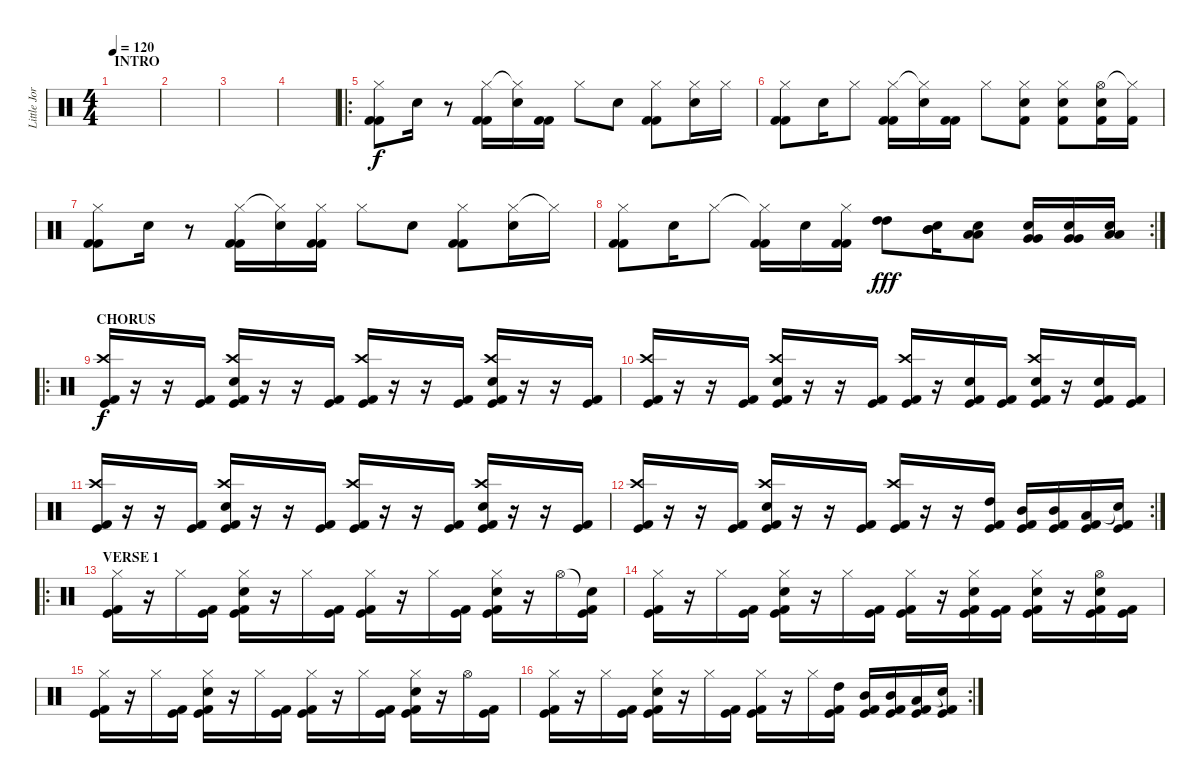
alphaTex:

\track ("Little Jordison" "Little Jor") {instrument percussion}
\staff {score}
\articulation defaults
\ts (4 4)
\section ("" "INTRO")
\tempo 120
\clef neutral
\ks c
|
|
|
|
\ro
("Hi-Hat (closed)" "Kick (hit) 2" "Kick (hit) 2").8 "Electric Snare (hit)".16 r.8 ("Hi-Hat (closed)" "Kick (hit) 2" "Kick (hit) 2").16 ("Hi-Hat (closed)"{t} "Electric Snare (hit)").16 ("Kick (hit) 2" "Kick (hit) 2").16 "Hi-Hat (closed)".8 "Electric Snare (hit)".8 ("Hi-Hat (closed)" "Kick (hit) 2" "Kick (hit) 2").8 ("Hi-Hat (closed)" "Electric Snare (hit)").16 "Hi-Hat (closed)".16 |
("Hi-Hat (closed)" "Kick (hit) 2" "Kick (hit) 2").8 "Electric Snare (hit)".16 "Hi-Hat (closed)".8 ("Hi-Hat (closed)" "Kick (hit) 2" "Kick (hit) 2").16 ("Hi-Hat (closed)"{t} "Electric Snare (hit)").16 ("Kick (hit) 2" "Kick (hit) 2").16 "Hi-Hat (closed)".8 ("Hi-Hat (closed)" "Kick (hit) 2" "Electric Snare (hit)").8 ("Hi-Hat (closed)" "Kick (hit) 2" "Electric Snare (hit)").8 ("Hi-Hat (open)" "Kick (hit) 2" "Electric Snare (hit)").16 ("Hi-Hat (closed)"{t} "Kick (hit) 2").16 |
("Hi-Hat (closed)" "Kick (hit) 2" "Kick (hit) 2").8 "Electric Snare (hit)".16 r.8 ("Hi-Hat (closed)" "Kick (hit) 2" "Kick (hit) 2").16 ("Hi-Hat (closed)"{t} "Electric Snare (hit)").16 ("Hi-Hat (closed)" "Kick (hit) 2" "Kick (hit) 2").16 "Hi-Hat (closed)".8 "Electric Snare (hit)".8 ("Hi-Hat (closed)" "Kick (hit) 2" "Kick (hit) 2").8 ("Hi-Hat (closed)" "Electric Snare (hit)").16 "Hi-Hat (closed)"{t}.16 |
\rc 2
("Hi-Hat (closed)" "Kick (hit) 2" "Kick (hit) 2").8 "Electric Snare (hit)".16 "Hi-Hat (closed)".8 ("Hi-Hat (closed)"{t} "Kick (hit) 2" "Kick (hit) 2").16 "Electric Snare (hit)".16 ("Hi-Hat (closed)" "Kick (hit) 2" "Kick (hit) 2").16 ("High Tom (hit)" "High Tom (hit)").8{dy fff} ("Mid Tom (hit)" "Mid Tom (hit)" "Electric Snare (hit)").16 ("Low Tom (hit)" "Low Tom (hit)" "Electric Snare (hit)").8 ("Very Low Tom (hit)" "Very Low Tom (hit)" "Electric Snare (hit)").16 ("Very Low Tom (hit)" "Very Low Tom (hit)" "Electric Snare (hit)").16 ("Low Floor Tom (hit)" "Low Floor Tom (hit)" "Electric Snare (hit)").16 |
\ro
\section ("" "CHORUS")
("Crash high (hit)" "Kick (hit)" "Kick (hit) 2").16{dy f} r.16 r.16 ("Kick (hit)" "Kick (hit) 2").16 ("Crash high (hit)" "Electric Snare (hit)" "Kick (hit)" "Kick (hit) 2").16 r.16 r.16 ("Kick (hit)" "Kick (hit) 2").16 ("Crash high (hit)" "Kick (hit)" "Kick (hit) 2").16 r.16 r.16 ("Kick (hit)" "Kick (hit) 2").16 ("Crash high (hit)" "Electric Snare (hit)" "Kick (hit)" "Kick (hit) 2").16 r.16 r.16 ("Kick (hit)" "Kick (hit) 2").16 |
("Crash high (hit)" "Kick (hit)" "Kick (hit) 2").16 r.16 r.16 ("Kick (hit)" "Kick (hit) 2").16 ("Crash high (hit)" "Electric Snare (hit)" "Kick (hit)" "Kick (hit) 2").16 r.16 r.16 ("Kick (hit)" "Kick (hit) 2").16 ("Crash high (hit)" "Kick (hit)" "Kick (hit) 2").16 r.16 ("Electric Snare (hit)" "Kick (hit)" "Kick (hit) 2").16 ("Kick (hit)" "Kick (hit) 2").16 ("Crash high (hit)" "Electric Snare (hit)" "Kick (hit)" "Kick (hit) 2").16 r.16 ("Electric Snare (hit)" "Kick (hit)" "Kick (hit) 2").16 ("Kick (hit)" "Kick (hit) 2").16 |
("Crash high (hit)" "Kick (hit)" "Kick (hit) 2").16 r.16 r.16 ("Kick (hit)" "Kick (hit) 2").16 ("Crash high (hit)" "Electric Snare (hit)" "Kick (hit)" "Kick (hit) 2").16 r.16 r.16 ("Kick (hit)" "Kick (hit) 2").16 ("Crash high (hit)" "Kick (hit)" "Kick (hit) 2").16 r.16 r.16 ("Kick (hit)" "Kick (hit) 2").16 ("Crash high (hit)" "Electric Snare (hit)" "Kick (hit)" "Kick (hit) 2").16 r.16 r.16 ("Kick (hit)" "Kick (hit) 2").16 |
\rc 2
("Crash high (hit)" "Kick (hit)" "Kick (hit) 2").16 r.16 r.16 ("Kick (hit)" "Kick (hit) 2").16 ("Crash high (hit)" "Electric Snare (hit)" "Kick (hit)" "Kick (hit) 2").16 r.16 r.16 ("Kick (hit)" "Kick (hit) 2").16 ("Crash high (hit)" "Kick (hit)" "Kick (hit) 2").16 r.16 r.16 ("High Tom (hit)" "Kick (hit)" "Kick (hit) 2").16 ("Mid Tom (hit)" "Kick (hit)" "Kick (hit) 2").16 ("Mid Tom (hit)" "Kick (hit)" "Kick (hit) 2").16 ("Low Tom (hit)" "Kick (hit)" "Kick (hit) 2").16 ("Snare (hit)"{t} "Kick (hit)" "Kick (hit) 2").16 |
\ro
\section ("" "VERSE 1")
("Hi-Hat (closed)" "Kick (hit)" "Kick (hit) 2").16 r.16 "Hi-Hat (closed)".16 ("Kick (hit)" "Kick (hit) 2").16 ("Hi-Hat (closed)" "Electric Snare (hit)" "Kick (hit)" "Kick (hit) 2").16 r.16 "Hi-Hat (closed)".16 ("Kick (hit)" "Kick (hit) 2").16 ("Hi-Hat (closed)" "Kick (hit)" "Kick (hit) 2").16 r.16 "Hi-Hat (closed)".16 ("Kick (hit)" "Kick (hit) 2").16 ("Hi-Hat (closed)" "Electric Snare (hit)" "Kick (hit)" "Kick (hit) 2").16 r.16 "Hi-Hat (open)".16 ("Snare (hit)"{t} "Kick (hit)" "Kick (hit) 2").16 |
("Hi-Hat (closed)" "Kick (hit)" "Kick (hit) 2").16 r.16 "Hi-Hat (closed)".16 ("Kick (hit)" "Kick (hit) 2").16 ("Hi-Hat (closed)" "Electric Snare (hit)" "Kick (hit)" "Kick (hit) 2").16 r.16 "Hi-Hat (closed)".16 ("Kick (hit)" "Kick (hit) 2").16 ("Hi-Hat (closed)" "Kick (hit)" "Kick (hit) 2").16 r.16 ("Hi-Hat (closed)" "Electric Snare (hit)" "Kick (hit)" "Kick (hit) 2").16 ("Kick (hit)" "Kick (hit) 2").16 ("Hi-Hat (closed)" "Electric Snare (hit)" "Kick (hit)" "Kick (hit) 2").16 r.16 ("Hi-Hat (open)" "Electric Snare (hit)" "Kick (hit)" "Kick (hit) 2").16 ("Kick (hit)" "Kick (hit) 2").16 |
("Hi-Hat (closed)" "Kick (hit)" "Kick (hit) 2").16 r.16 "Hi-Hat (closed)".16 ("Kick (hit)" "Kick (hit) 2").16 ("Hi-Hat (closed)" "Electric Snare (hit)" "Kick (hit)" "Kick (hit) 2").16 r.16 "Hi-Hat (closed)".16 ("Kick (hit)" "Kick (hit) 2").16 ("Hi-Hat (closed)" "Kick (hit)" "Kick (hit) 2").16 r.16 "Hi-Hat (closed)".16 ("Kick (hit)" "Kick (hit) 2").16 ("Hi-Hat (closed)" "Electric Snare (hit)" "Kick (hit)" "Kick (hit) 2").16 r.16 "Hi-Hat (open)".16 ("Kick (hit)" "Kick (hit) 2").16 |
\rc 2
("Hi-Hat (closed)" "Kick (hit)" "Kick (hit) 2").16 r.16 "Hi-Hat (closed)".16 ("Kick (hit)" "Kick (hit) 2").16 ("Hi-Hat (closed)" "Electric Snare (hit)" "Kick (hit)" "Kick (hit) 2").16 r.16 "Hi-Hat (closed)".16 ("Kick (hit)" "Kick (hit) 2").16 ("Hi-Hat (closed)" "Kick (hit)" "Kick (hit) 2").16 r.16 "Hi-Hat (closed)".16 ("High Tom (hit)" "Kick (hit)" "Kick (hit) 2").16 ("Mid Tom (hit)" "Kick (hit)" "Kick (hit) 2").16 ("Mid Tom (hit)" "Kick (hit)" "Kick (hit) 2").16 ("Low Tom (hit)" "Kick (hit)" "Kick (hit) 2").16 ("Snare (hit)"{t} "Kick (hit)" "Kick (hit) 2").16
